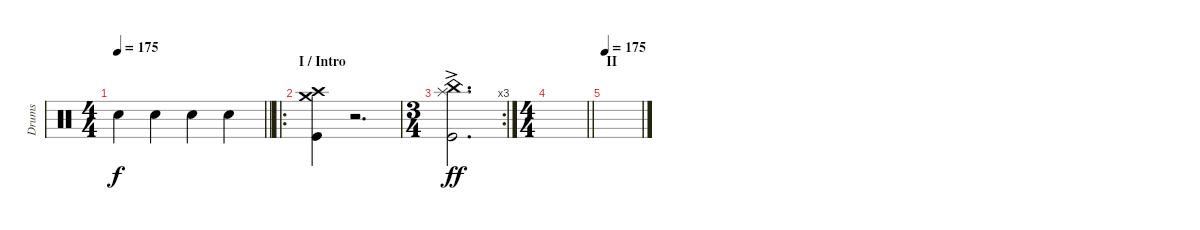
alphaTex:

\track ("Drums" "Drums") {instrument percussion}
\staff {score}
\articulation defaults
\ts (4 4)
\tempo 175
\clef neutral
\barLineRight lightlight
\ks c "Electric Snare (hit)".4{dy f} "Electric Snare (hit)".4 "Electric Snare (hit)".4 "Electric Snare (hit)".4
|
\ro
\section ("" "I / Intro")
("Crash high (hit)" "Crash medium (hit)" "Kick (hit)").4 r.2{d} |
\rc 3
\ts (3 4)
("China (hit)" "Splash (hit)"{ac} "Kick (hit)").2{d dy ff} |
\ts (4 4)
\barLineRight lightlight
|
\section ("" "II")
\tempo 175
